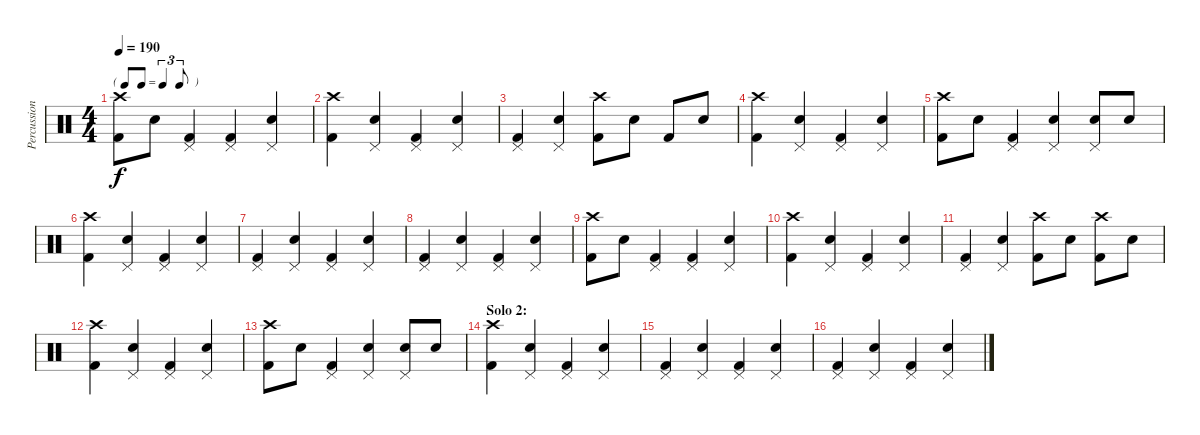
\track ("Percussion" "Percussion") {instrument percussion}
\staff {score}
\articulation defaults
\ts (4 4)
\tf triplet8th
\tempo 190
\clef neutral
\ks c
("Crash high (hit)" "Kick (hit) 2").8{dy f} "Electric Snare (hit)".8 ("Pedal Hi-Hat (hit)" "Kick (hit) 2").4 ("Pedal Hi-Hat (hit)" "Kick (hit) 2").4 ("Pedal Hi-Hat (hit)" "Electric Snare (hit)").4 |
("Crash high (hit)" "Kick (hit) 2").4 ("Pedal Hi-Hat (hit)" "Electric Snare (hit)").4 ("Pedal Hi-Hat (hit)" "Kick (hit) 2").4 ("Pedal Hi-Hat (hit)" "Electric Snare (hit)").4 |
("Pedal Hi-Hat (hit)" "Kick (hit) 2").4 ("Pedal Hi-Hat (hit)" "Electric Snare (hit)").4 ("Crash high (hit)" "Kick (hit) 2").8 "Electric Snare (hit)".8 "Kick (hit) 2".8 "Electric Snare (hit)".8 |
("Crash high (hit)" "Kick (hit) 2").4 ("Pedal Hi-Hat (hit)" "Electric Snare (hit)").4 ("Pedal Hi-Hat (hit)" "Kick (hit) 2").4 ("Pedal Hi-Hat (hit)" "Electric Snare (hit)").4 |
("Crash high (hit)" "Kick (hit) 2").8 "Electric Snare (hit)".8 ("Pedal Hi-Hat (hit)" "Kick (hit) 2").4 ("Pedal Hi-Hat (hit)" "Electric Snare (hit)").4 ("Pedal Hi-Hat (hit)" "Electric Snare (hit)").8 "Electric Snare (hit)".8 |
("Crash high (hit)" "Kick (hit) 2").4 ("Pedal Hi-Hat (hit)" "Electric Snare (hit)").4 ("Pedal Hi-Hat (hit)" "Kick (hit) 2").4 ("Pedal Hi-Hat (hit)" "Electric Snare (hit)").4 |
("Pedal Hi-Hat (hit)" "Kick (hit) 2").4 ("Pedal Hi-Hat (hit)" "Electric Snare (hit)").4 ("Pedal Hi-Hat (hit)" "Kick (hit) 2").4 ("Pedal Hi-Hat (hit)" "Electric Snare (hit)").4 |
("Pedal Hi-Hat (hit)" "Kick (hit) 2").4 ("Pedal Hi-Hat (hit)" "Electric Snare (hit)").4 ("Pedal Hi-Hat (hit)" "Kick (hit) 2").4 ("Pedal Hi-Hat (hit)" "Electric Snare (hit)").4 |
("Crash high (hit)" "Kick (hit) 2").8 "Electric Snare (hit)".8 ("Pedal Hi-Hat (hit)" "Kick (hit) 2").4 ("Pedal Hi-Hat (hit)" "Kick (hit) 2").4 ("Pedal Hi-Hat (hit)" "Electric Snare (hit)").4 |
("Crash high (hit)" "Kick (hit) 2").4 ("Pedal Hi-Hat (hit)" "Electric Snare (hit)").4 ("Pedal Hi-Hat (hit)" "Kick (hit) 2").4 ("Pedal Hi-Hat (hit)" "Electric Snare (hit)").4 |
("Pedal Hi-Hat (hit)" "Kick (hit) 2").4 ("Pedal Hi-Hat (hit)" "Electric Snare (hit)").4 ("Crash high (hit)" "Kick (hit) 2").8 "Electric Snare (hit)".8 ("Crash high (hit)" "Kick (hit) 2").8 "Electric Snare (hit)".8 |
("Crash high (hit)" "Kick (hit) 2").4 ("Pedal Hi-Hat (hit)" "Electric Snare (hit)").4 ("Pedal Hi-Hat (hit)" "Kick (hit) 2").4 ("Pedal Hi-Hat (hit)" "Electric Snare (hit)").4 |
("Crash high (hit)" "Kick (hit) 2").8 "Electric Snare (hit)".8 ("Pedal Hi-Hat (hit)" "Kick (hit) 2").4 ("Pedal Hi-Hat (hit)" "Electric Snare (hit)").4 ("Pedal Hi-Hat (hit)" "Electric Snare (hit)").8 "Electric Snare (hit)".8 |
\section ("" "Solo 2:")
("Crash high (hit)" "Kick (hit) 2").4 ("Pedal Hi-Hat (hit)" "Electric Snare (hit)").4 ("Pedal Hi-Hat (hit)" "Kick (hit) 2").4 ("Pedal Hi-Hat (hit)" "Electric Snare (hit)").4 |
("Pedal Hi-Hat (hit)" "Kick (hit) 2").4 ("Pedal Hi-Hat (hit)" "Electric Snare (hit)").4 ("Pedal Hi-Hat (hit)" "Kick (hit) 2").4 ("Pedal Hi-Hat (hit)" "Electric Snare (hit)").4 |
("Pedal Hi-Hat (hit)" "Kick (hit) 2").4 ("Pedal Hi-Hat (hit)" "Electric Snare (hit)").4 ("Pedal Hi-Hat (hit)" "Kick (hit) 2").4 ("Pedal Hi-Hat (hit)" "Electric Snare (hit)").4
